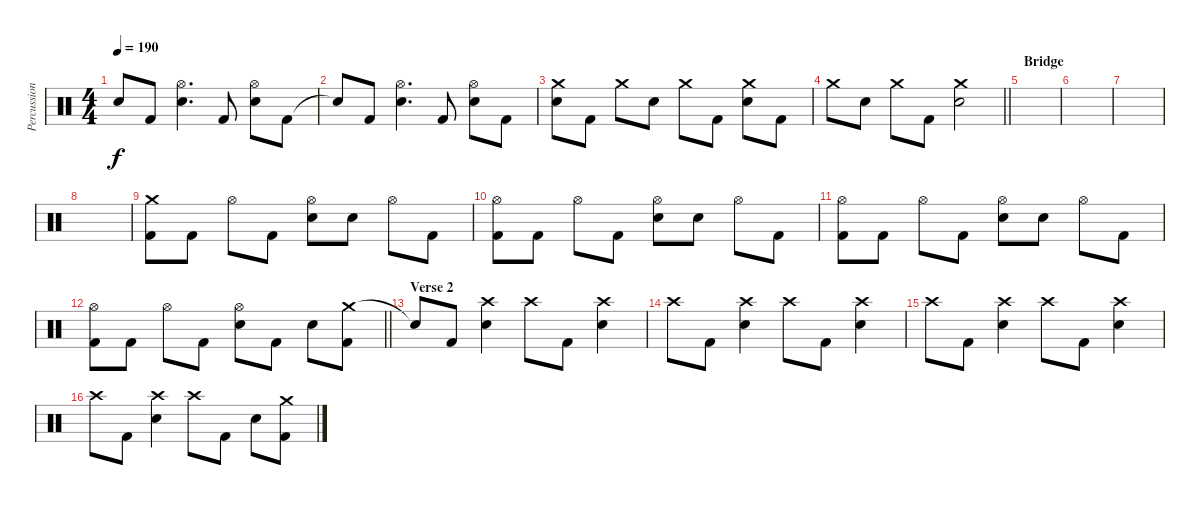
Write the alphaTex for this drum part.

\track ("Percussion" "Percussion") {instrument percussion}
\staff {score}
\articulation defaults
\ts (4 4)
\tempo 190
\clef neutral
\ks c "Snare (hit)"{t}.8{dy f} "Kick (hit) 2".8
("Hi-Hat (open)" "Electric Snare (hit)").4{d} "Kick (hit) 2".8 ("Hi-Hat (open)" "Electric Snare (hit)").8 "Kick (hit) 2".8 |
"Snare (hit)"{t}.8 "Kick (hit) 2".8 ("Hi-Hat (open)" "Electric Snare (hit)").4{d} "Kick (hit) 2".8 ("Hi-Hat (open)" "Electric Snare (hit)").8 "Kick (hit) 2".8 |
("Crash medium (hit)" "Electric Snare (hit)").8 "Kick (hit) 2".8 "Crash medium (hit)".8 "Electric Snare (hit)".8 "Crash medium (hit)".8 "Kick (hit) 2".8 ("Crash medium (hit)" "Electric Snare (hit)").8 "Kick (hit) 2".8 |
\barLineRight lightlight "Crash medium (hit)".8 "Electric Snare (hit)".8 "Crash medium (hit)".8 "Kick (hit) 2".8
("Crash medium (hit)" "Electric Snare (hit)").2 |
\section ("" "Bridge")
|
|
|
|
("Crash medium (hit)" "Kick (hit) 2").8 "Kick (hit) 2".8 "Hi-Hat (open)".8 "Kick (hit) 2".8 ("Hi-Hat (open)" "Electric Snare (hit)").8 "Electric Snare (hit)".8 "Hi-Hat (open)".8 "Kick (hit) 2".8 |
("Hi-Hat (open)" "Kick (hit) 2").8 "Kick (hit) 2".8 "Hi-Hat (open)".8 "Kick (hit) 2".8 ("Hi-Hat (open)" "Electric Snare (hit)").8 "Electric Snare (hit)".8 "Hi-Hat (open)".8 "Kick (hit) 2".8 |
("Hi-Hat (open)" "Kick (hit) 2").8 "Kick (hit) 2".8 "Hi-Hat (open)".8 "Kick (hit) 2".8 ("Hi-Hat (open)" "Electric Snare (hit)").8 "Electric Snare (hit)".8 "Hi-Hat (open)".8 "Kick (hit) 2".8 |
\barLineRight lightlight
("Hi-Hat (open)" "Kick (hit) 2").8 "Kick (hit) 2".8 "Hi-Hat (open)".8 "Kick (hit) 2".8 ("Hi-Hat (open)" "Electric Snare (hit)").8 "Kick (hit) 2".8 "Electric Snare (hit)".8 ("Crash medium (hit)" "Kick (hit) 2").8 |
\section ("" "Verse 2")
"Snare (hit)"{t}.8 "Kick (hit) 2".8 ("Crash high (hit)" "Electric Snare (hit)").4 "Crash high (hit)".8 "Kick (hit) 2".8 ("Crash high (hit)" "Electric Snare (hit)").4 |
"Crash high (hit)".8 "Kick (hit) 2".8 ("Crash high (hit)" "Electric Snare (hit)").4 "Crash high (hit)".8 "Kick (hit) 2".8 ("Crash high (hit)" "Electric Snare (hit)").4 |
"Crash high (hit)".8 "Kick (hit) 2".8 ("Crash high (hit)" "Electric Snare (hit)").4 "Crash high (hit)".8 "Kick (hit) 2".8 ("Crash high (hit)" "Electric Snare (hit)").4 |
"Crash high (hit)".8 "Kick (hit) 2".8 ("Crash high (hit)" "Electric Snare (hit)").4 "Crash high (hit)".8 "Kick (hit) 2".8 "Electric Snare (hit)".8 ("Crash medium (hit)" "Kick (hit) 2").8
